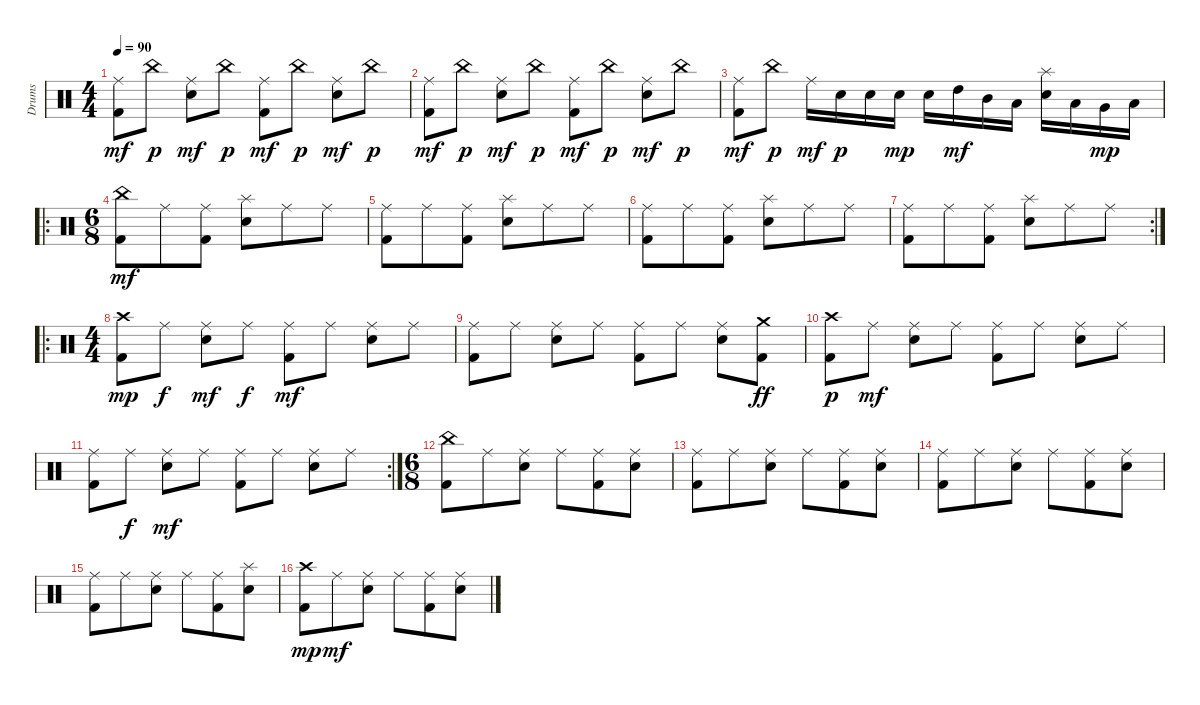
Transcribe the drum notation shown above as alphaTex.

\track ("Drums" "Drums") {instrument percussion}
\staff {score}
\articulation defaults
\ts (4 4)
\tempo 90
\clef neutral
\ks c
("Ride (middle)" "Kick (hit) 2").8{dy mf} "China (hit)".8{dy p} ("Ride (middle)" "Electric Snare (hit)").8{dy mf} "China (hit)".8{dy p} ("Ride (middle)" "Kick (hit) 2").8{dy mf} "China (hit)".8{dy p} ("Ride (middle)" "Electric Snare (hit)").8{dy mf} "China (hit)".8{dy p} |
("Ride (middle)" "Kick (hit) 2").8{dy mf} "China (hit)".8{dy p} ("Ride (middle)" "Electric Snare (hit)").8{dy mf} "China (hit)".8{dy p} ("Ride (middle)" "Kick (hit) 2").8{dy mf} "China (hit)".8{dy p} ("Ride (middle)" "Electric Snare (hit)").8{dy mf} "China (hit)".8{dy p} |
("Ride (middle)" "Kick (hit) 2").8{dy mf} "China (hit)".8{dy p} "Ride (middle)".16{dy mf} "Electric Snare (hit)".16{dy p} "Electric Snare (hit)".16 "Electric Snare (hit)".16{dy mp} "Electric Snare (hit)".16 "High Tom (hit)".16{dy mf} "Mid Tom (hit)".16 "Low Tom (hit)".16 ("Splash (hit)" "Electric Snare (hit)").16 "Low Tom (hit)".16 "Very Low Tom (hit)".16{dy mp} "Low Floor Tom (hit)".16 |
\ro
\ts (6 8)
("China (hit)" "Kick (hit) 2").8{dy mf} "Ride (middle)".8 ("Ride (middle)" "Kick (hit) 2").8 ("Splash (hit)" "Electric Snare (hit)").8 "Ride (middle)".8 "Ride (middle)".8 |
("Ride (middle)" "Kick (hit) 2").8 "Ride (middle)".8 ("Ride (middle)" "Kick (hit) 2").8 ("Splash (hit)" "Electric Snare (hit)").8 "Ride (middle)".8 "Ride (middle)".8 |
("Ride (middle)" "Kick (hit) 2").8 "Ride (middle)".8 ("Ride (middle)" "Kick (hit) 2").8 ("Splash (hit)" "Electric Snare (hit)").8 "Ride (middle)".8 "Ride (middle)".8 |
\rc 2
("Ride (middle)" "Kick (hit) 2").8 "Ride (middle)".8 ("Ride (middle)" "Kick (hit) 2").8 ("Splash (hit)" "Electric Snare (hit)").8 "Ride (middle)".8 "Ride (middle)".8 |
\ro
\ts (4 4)
("Crash high (hit)" "Kick (hit) 2").8{dy mp} "Ride (middle)".8{dy f} ("Ride (middle)" "Electric Snare (hit)").8{dy mf} "Ride (middle)".8{dy f} ("Ride (middle)" "Kick (hit) 2").8{dy mf} "Ride (middle)".8 ("Ride (middle)" "Electric Snare (hit)").8 "Ride (middle)".8 |
("Ride (middle)" "Kick (hit) 2").8 "Ride (middle)".8 ("Ride (middle)" "Electric Snare (hit)").8 "Ride (middle)".8 ("Ride (middle)" "Kick (hit) 2").8 "Ride (middle)".8 ("Ride (middle)" "Electric Snare (hit)").8 ("Crash medium (hit)" "Kick (hit) 2").8{dy ff} |
("Crash high (hit)" "Kick (hit) 2").8{dy p} "Ride (middle)".8{dy mf} ("Ride (middle)" "Electric Snare (hit)").8 "Ride (middle)".8 ("Ride (middle)" "Kick (hit) 2").8 "Ride (middle)".8 ("Ride (middle)" "Electric Snare (hit)").8 "Ride (middle)".8 |
\rc 2
("Ride (middle)" "Kick (hit) 2").8 "Ride (middle)".8{dy f} ("Ride (middle)" "Electric Snare (hit)").8{dy mf} "Ride (middle)".8 ("Ride (middle)" "Kick (hit) 2").8 "Ride (middle)".8 ("Ride (middle)" "Electric Snare (hit)").8 "Ride (middle)".8 |
\ts (6 8)
("China (hit)" "Kick (hit) 2").8 "Ride (middle)".8 ("Ride (middle)" "Electric Snare (hit)").8 "Ride (middle)".8 ("Ride (middle)" "Kick (hit) 2").8 ("Ride (middle)" "Electric Snare (hit)").8 |
("Ride (middle)" "Kick (hit) 2").8 "Ride (middle)".8 ("Ride (middle)" "Electric Snare (hit)").8 "Ride (middle)".8 ("Ride (middle)" "Kick (hit) 2").8 ("Ride (middle)" "Electric Snare (hit)").8 |
("Ride (middle)" "Kick (hit) 2").8 "Ride (middle)".8 ("Ride (middle)" "Electric Snare (hit)").8 "Ride (middle)".8 ("Ride (middle)" "Kick (hit) 2").8 ("Ride (middle)" "Electric Snare (hit)").8 |
("Ride (middle)" "Kick (hit) 2").8 "Ride (middle)".8 ("Ride (middle)" "Electric Snare (hit)").8 "Ride (middle)".8 ("Ride (middle)" "Kick (hit) 2").8 ("Splash (hit)" "Electric Snare (hit)").8 |
("Crash high (hit)" "Kick (hit) 2").8{dy mp} "Ride (middle)".8{dy mf} ("Ride (middle)" "Electric Snare (hit)").8 "Ride (middle)".8 ("Ride (middle)" "Kick (hit) 2").8 ("Ride (middle)" "Electric Snare (hit)").8
